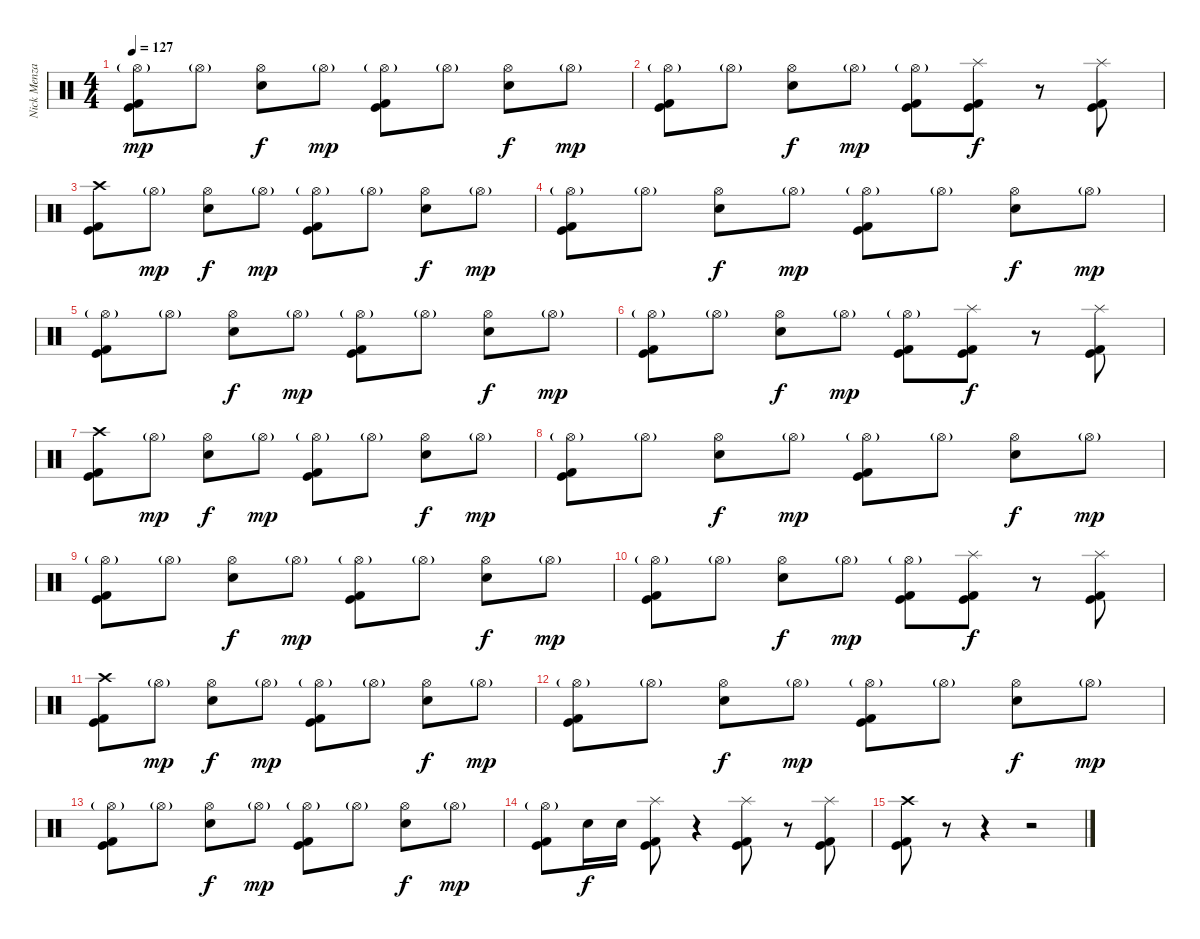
\track ("Nick Menza (Drums)" "Nick Menza") {instrument percussion}
\staff {score}
\articulation defaults
\ts (4 4)
\tempo 127
\clef neutral
\ks c
("Hi-Hat (open)"{g} "Kick (hit)" "Kick (hit) 2").8{dy mp} "Hi-Hat (open)"{g}.8 ("Hi-Hat (open)" "Electric Snare (hit)").8{dy f} "Hi-Hat (open)"{g}.8{dy mp} ("Hi-Hat (open)"{g} "Kick (hit)" "Kick (hit) 2").8 "Hi-Hat (open)"{g}.8 ("Hi-Hat (open)" "Electric Snare (hit)").8{dy f} "Hi-Hat (open)"{g}.8{dy mp} |
("Hi-Hat (open)"{g} "Kick (hit)" "Kick (hit) 2").8 "Hi-Hat (open)"{g}.8 ("Hi-Hat (open)" "Electric Snare (hit)").8{dy f} "Hi-Hat (open)"{g}.8{dy mp} ("Hi-Hat (open)"{g} "Kick (hit)" "Kick (hit) 2").8 ("Splash (hit)" "Kick (hit)" "Kick (hit) 2").8{dy f} r.8 ("Splash (hit)" "Kick (hit)" "Kick (hit) 2").8 |
("Crash high (hit)" "Kick (hit)" "Kick (hit) 2").8 "Hi-Hat (open)"{g}.8{dy mp} ("Hi-Hat (open)" "Electric Snare (hit)").8{dy f} "Hi-Hat (open)"{g}.8{dy mp} ("Hi-Hat (open)"{g} "Kick (hit)" "Kick (hit) 2").8 "Hi-Hat (open)"{g}.8 ("Hi-Hat (open)" "Electric Snare (hit)").8{dy f} "Hi-Hat (open)"{g}.8{dy mp} |
("Hi-Hat (open)"{g} "Kick (hit)" "Kick (hit) 2").8 "Hi-Hat (open)"{g}.8 ("Hi-Hat (open)" "Electric Snare (hit)").8{dy f} "Hi-Hat (open)"{g}.8{dy mp} ("Hi-Hat (open)"{g} "Kick (hit)" "Kick (hit) 2").8 "Hi-Hat (open)"{g}.8 ("Hi-Hat (open)" "Electric Snare (hit)").8{dy f} "Hi-Hat (open)"{g}.8{dy mp} |
("Hi-Hat (open)"{g} "Kick (hit)" "Kick (hit) 2").8 "Hi-Hat (open)"{g}.8 ("Hi-Hat (open)" "Electric Snare (hit)").8{dy f} "Hi-Hat (open)"{g}.8{dy mp} ("Hi-Hat (open)"{g} "Kick (hit)" "Kick (hit) 2").8 "Hi-Hat (open)"{g}.8 ("Hi-Hat (open)" "Electric Snare (hit)").8{dy f} "Hi-Hat (open)"{g}.8{dy mp} |
("Hi-Hat (open)"{g} "Kick (hit)" "Kick (hit) 2").8 "Hi-Hat (open)"{g}.8 ("Hi-Hat (open)" "Electric Snare (hit)").8{dy f} "Hi-Hat (open)"{g}.8{dy mp} ("Hi-Hat (open)"{g} "Kick (hit)" "Kick (hit) 2").8 ("Splash (hit)" "Kick (hit)" "Kick (hit) 2").8{dy f} r.8 ("Splash (hit)" "Kick (hit)" "Kick (hit) 2").8 |
("Crash high (hit)" "Kick (hit)" "Kick (hit) 2").8 "Hi-Hat (open)"{g}.8{dy mp} ("Hi-Hat (open)" "Electric Snare (hit)").8{dy f} "Hi-Hat (open)"{g}.8{dy mp} ("Hi-Hat (open)"{g} "Kick (hit)" "Kick (hit) 2").8 "Hi-Hat (open)"{g}.8 ("Hi-Hat (open)" "Electric Snare (hit)").8{dy f} "Hi-Hat (open)"{g}.8{dy mp} |
("Hi-Hat (open)"{g} "Kick (hit)" "Kick (hit) 2").8 "Hi-Hat (open)"{g}.8 ("Hi-Hat (open)" "Electric Snare (hit)").8{dy f} "Hi-Hat (open)"{g}.8{dy mp} ("Hi-Hat (open)"{g} "Kick (hit)" "Kick (hit) 2").8 "Hi-Hat (open)"{g}.8 ("Hi-Hat (open)" "Electric Snare (hit)").8{dy f} "Hi-Hat (open)"{g}.8{dy mp} |
("Hi-Hat (open)"{g} "Kick (hit)" "Kick (hit) 2").8 "Hi-Hat (open)"{g}.8 ("Hi-Hat (open)" "Electric Snare (hit)").8{dy f} "Hi-Hat (open)"{g}.8{dy mp} ("Hi-Hat (open)"{g} "Kick (hit)" "Kick (hit) 2").8 "Hi-Hat (open)"{g}.8 ("Hi-Hat (open)" "Electric Snare (hit)").8{dy f} "Hi-Hat (open)"{g}.8{dy mp} |
("Hi-Hat (open)"{g} "Kick (hit)" "Kick (hit) 2").8 "Hi-Hat (open)"{g}.8 ("Hi-Hat (open)" "Electric Snare (hit)").8{dy f} "Hi-Hat (open)"{g}.8{dy mp} ("Hi-Hat (open)"{g} "Kick (hit)" "Kick (hit) 2").8 ("Splash (hit)" "Kick (hit)" "Kick (hit) 2").8{dy f} r.8 ("Splash (hit)" "Kick (hit)" "Kick (hit) 2").8 |
("Crash high (hit)" "Kick (hit)" "Kick (hit) 2").8 "Hi-Hat (open)"{g}.8{dy mp} ("Hi-Hat (open)" "Electric Snare (hit)").8{dy f} "Hi-Hat (open)"{g}.8{dy mp} ("Hi-Hat (open)"{g} "Kick (hit)" "Kick (hit) 2").8 "Hi-Hat (open)"{g}.8 ("Hi-Hat (open)" "Electric Snare (hit)").8{dy f} "Hi-Hat (open)"{g}.8{dy mp} |
("Hi-Hat (open)"{g} "Kick (hit)" "Kick (hit) 2").8 "Hi-Hat (open)"{g}.8 ("Hi-Hat (open)" "Electric Snare (hit)").8{dy f} "Hi-Hat (open)"{g}.8{dy mp} ("Hi-Hat (open)"{g} "Kick (hit)" "Kick (hit) 2").8 "Hi-Hat (open)"{g}.8 ("Hi-Hat (open)" "Electric Snare (hit)").8{dy f} "Hi-Hat (open)"{g}.8{dy mp} |
("Hi-Hat (open)"{g} "Kick (hit)" "Kick (hit) 2").8 "Hi-Hat (open)"{g}.8 ("Hi-Hat (open)" "Electric Snare (hit)").8{dy f} "Hi-Hat (open)"{g}.8{dy mp} ("Hi-Hat (open)"{g} "Kick (hit)" "Kick (hit) 2").8 "Hi-Hat (open)"{g}.8 ("Hi-Hat (open)" "Electric Snare (hit)").8{dy f} "Hi-Hat (open)"{g}.8{dy mp} |
("Hi-Hat (open)"{g} "Kick (hit)" "Kick (hit) 2").8 "Electric Snare (hit)".16{dy f} "Electric Snare (hit)".16 ("Splash (hit)" "Kick (hit)" "Kick (hit) 2").8 r.4 ("Splash (hit)" "Kick (hit)" "Kick (hit) 2").8 r.8 ("Splash (hit)" "Kick (hit)" "Kick (hit) 2").8 |
("Crash high (hit)" "Kick (hit)" "Kick (hit) 2").8 r.8 r.4 r.2
